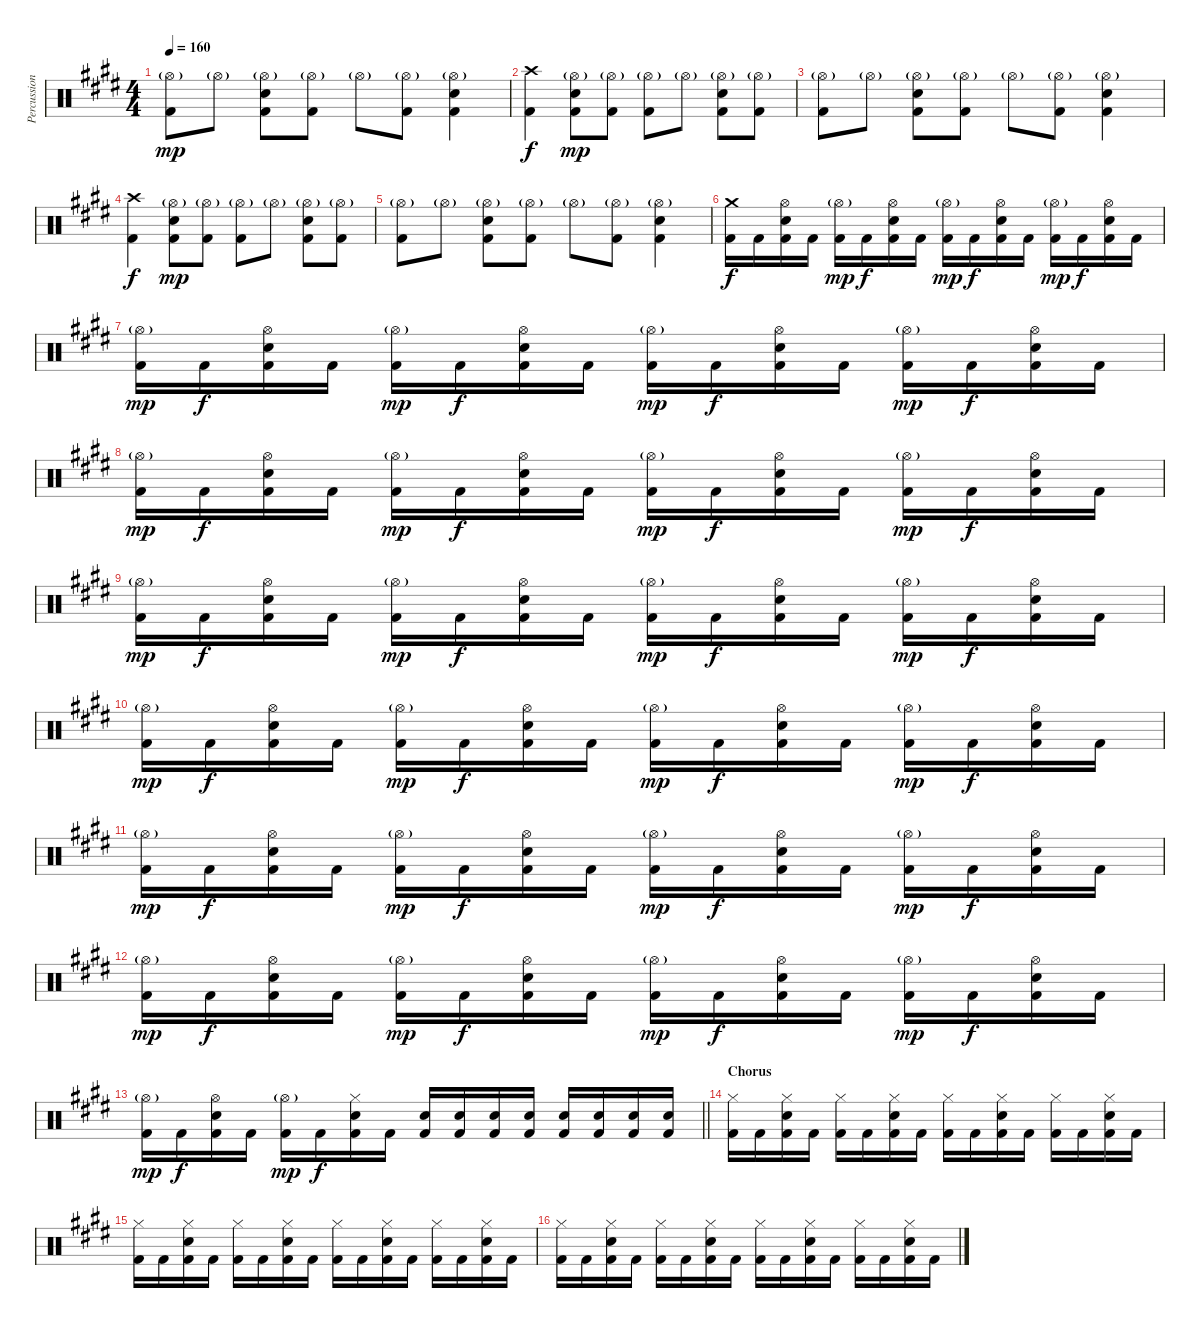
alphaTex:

\track ("Percussion (Thomen Stauch)" "Percussion") {instrument percussion}
\staff {score}
\articulation defaults
\ts (4 4)
\tempo 160
\clef neutral
\ks c#minor
("Hi-Hat (open)"{g} "Kick (hit) 2").8{dy mp} "Hi-Hat (open)"{g}.8 ("Hi-Hat (open)"{g} "Snare (hit) 2" "Kick (hit) 2").8 ("Hi-Hat (open)"{g} "Kick (hit) 2").8 "Hi-Hat (open)"{g}.8 ("Hi-Hat (open)"{g} "Kick (hit) 2").8 ("Hi-Hat (open)"{g} "Snare (hit) 2" "Kick (hit) 2").4 |
("Crash high (hit)" "Kick (hit) 2").4{dy f} ("Hi-Hat (open)"{g} "Snare (hit) 2" "Kick (hit) 2").8{dy mp} ("Hi-Hat (open)"{g} "Kick (hit) 2").8 ("Hi-Hat (open)"{g} "Kick (hit) 2").8 "Hi-Hat (open)"{g}.8 ("Hi-Hat (open)"{g} "Snare (hit) 2" "Kick (hit) 2").8 ("Hi-Hat (open)"{g} "Kick (hit) 2").8 |
("Hi-Hat (open)"{g} "Kick (hit) 2").8 "Hi-Hat (open)"{g}.8 ("Hi-Hat (open)"{g} "Snare (hit) 2" "Kick (hit) 2").8 ("Hi-Hat (open)"{g} "Kick (hit) 2").8 "Hi-Hat (open)"{g}.8 ("Hi-Hat (open)"{g} "Kick (hit) 2").8 ("Hi-Hat (open)"{g} "Snare (hit) 2" "Kick (hit) 2").4 |
("Crash high (hit)" "Kick (hit) 2").4{dy f} ("Hi-Hat (open)"{g} "Snare (hit) 2" "Kick (hit) 2").8{dy mp} ("Hi-Hat (open)"{g} "Kick (hit) 2").8 ("Hi-Hat (open)"{g} "Kick (hit) 2").8 "Hi-Hat (open)"{g}.8 ("Hi-Hat (open)"{g} "Snare (hit) 2" "Kick (hit) 2").8 ("Hi-Hat (open)"{g} "Kick (hit) 2").8 |
("Hi-Hat (open)"{g} "Kick (hit) 2").8 "Hi-Hat (open)"{g}.8 ("Hi-Hat (open)"{g} "Snare (hit) 2" "Kick (hit) 2").8 ("Hi-Hat (open)"{g} "Kick (hit) 2").8 "Hi-Hat (open)"{g}.8 ("Hi-Hat (open)"{g} "Kick (hit) 2").8 ("Hi-Hat (open)"{g} "Snare (hit) 2" "Kick (hit) 2").4 |
("Crash medium (hit)" "Kick (hit) 2").16{dy f} "Kick (hit) 2".16 ("Hi-Hat (open)" "Snare (hit) 2" "Kick (hit) 2").16 "Kick (hit) 2".16 ("Hi-Hat (open)"{g} "Kick (hit) 2").16{dy mp} "Kick (hit) 2".16{dy f} ("Hi-Hat (open)" "Snare (hit) 2" "Kick (hit) 2").16 "Kick (hit) 2".16 ("Hi-Hat (open)"{g} "Kick (hit) 2").16{dy mp} "Kick (hit) 2".16{dy f} ("Hi-Hat (open)" "Snare (hit) 2" "Kick (hit) 2").16 "Kick (hit) 2".16 ("Hi-Hat (open)"{g} "Kick (hit) 2").16{dy mp} "Kick (hit) 2".16{dy f} ("Hi-Hat (open)" "Snare (hit) 2" "Kick (hit) 2").16 "Kick (hit) 2".16 |
("Hi-Hat (open)"{g} "Kick (hit) 2").16{dy mp} "Kick (hit) 2".16{dy f} ("Hi-Hat (open)" "Snare (hit) 2" "Kick (hit) 2").16 "Kick (hit) 2".16 ("Hi-Hat (open)"{g} "Kick (hit) 2").16{dy mp} "Kick (hit) 2".16{dy f} ("Hi-Hat (open)" "Snare (hit) 2" "Kick (hit) 2").16 "Kick (hit) 2".16 ("Hi-Hat (open)"{g} "Kick (hit) 2").16{dy mp} "Kick (hit) 2".16{dy f} ("Hi-Hat (open)" "Snare (hit) 2" "Kick (hit) 2").16 "Kick (hit) 2".16 ("Hi-Hat (open)"{g} "Kick (hit) 2").16{dy mp} "Kick (hit) 2".16{dy f} ("Hi-Hat (open)" "Snare (hit) 2" "Kick (hit) 2").16 "Kick (hit) 2".16 |
("Hi-Hat (open)"{g} "Kick (hit) 2").16{dy mp} "Kick (hit) 2".16{dy f} ("Hi-Hat (open)" "Snare (hit) 2" "Kick (hit) 2").16 "Kick (hit) 2".16 ("Hi-Hat (open)"{g} "Kick (hit) 2").16{dy mp} "Kick (hit) 2".16{dy f} ("Hi-Hat (open)" "Snare (hit) 2" "Kick (hit) 2").16 "Kick (hit) 2".16 ("Hi-Hat (open)"{g} "Kick (hit) 2").16{dy mp} "Kick (hit) 2".16{dy f} ("Hi-Hat (open)" "Snare (hit) 2" "Kick (hit) 2").16 "Kick (hit) 2".16 ("Hi-Hat (open)"{g} "Kick (hit) 2").16{dy mp} "Kick (hit) 2".16{dy f} ("Hi-Hat (open)" "Snare (hit) 2" "Kick (hit) 2").16 "Kick (hit) 2".16 |
("Hi-Hat (open)"{g} "Kick (hit) 2").16{dy mp} "Kick (hit) 2".16{dy f} ("Hi-Hat (open)" "Snare (hit) 2" "Kick (hit) 2").16 "Kick (hit) 2".16 ("Hi-Hat (open)"{g} "Kick (hit) 2").16{dy mp} "Kick (hit) 2".16{dy f} ("Hi-Hat (open)" "Snare (hit) 2" "Kick (hit) 2").16 "Kick (hit) 2".16 ("Hi-Hat (open)"{g} "Kick (hit) 2").16{dy mp} "Kick (hit) 2".16{dy f} ("Hi-Hat (open)" "Snare (hit) 2" "Kick (hit) 2").16 "Kick (hit) 2".16 ("Hi-Hat (open)"{g} "Kick (hit) 2").16{dy mp} "Kick (hit) 2".16{dy f} ("Hi-Hat (open)" "Snare (hit) 2" "Kick (hit) 2").16 "Kick (hit) 2".16 |
("Hi-Hat (open)"{g} "Kick (hit) 2").16{dy mp} "Kick (hit) 2".16{dy f} ("Hi-Hat (open)" "Snare (hit) 2" "Kick (hit) 2").16 "Kick (hit) 2".16 ("Hi-Hat (open)"{g} "Kick (hit) 2").16{dy mp} "Kick (hit) 2".16{dy f} ("Hi-Hat (open)" "Snare (hit) 2" "Kick (hit) 2").16 "Kick (hit) 2".16 ("Hi-Hat (open)"{g} "Kick (hit) 2").16{dy mp} "Kick (hit) 2".16{dy f} ("Hi-Hat (open)" "Snare (hit) 2" "Kick (hit) 2").16 "Kick (hit) 2".16 ("Hi-Hat (open)"{g} "Kick (hit) 2").16{dy mp} "Kick (hit) 2".16{dy f} ("Hi-Hat (open)" "Snare (hit) 2" "Kick (hit) 2").16 "Kick (hit) 2".16 |
("Hi-Hat (open)"{g} "Kick (hit) 2").16{dy mp} "Kick (hit) 2".16{dy f} ("Hi-Hat (open)" "Snare (hit) 2" "Kick (hit) 2").16 "Kick (hit) 2".16 ("Hi-Hat (open)"{g} "Kick (hit) 2").16{dy mp} "Kick (hit) 2".16{dy f} ("Hi-Hat (open)" "Snare (hit) 2" "Kick (hit) 2").16 "Kick (hit) 2".16 ("Hi-Hat (open)"{g} "Kick (hit) 2").16{dy mp} "Kick (hit) 2".16{dy f} ("Hi-Hat (open)" "Snare (hit) 2" "Kick (hit) 2").16 "Kick (hit) 2".16 ("Hi-Hat (open)"{g} "Kick (hit) 2").16{dy mp} "Kick (hit) 2".16{dy f} ("Hi-Hat (open)" "Snare (hit) 2" "Kick (hit) 2").16 "Kick (hit) 2".16 |
("Hi-Hat (open)"{g} "Kick (hit) 2").16{dy mp} "Kick (hit) 2".16{dy f} ("Hi-Hat (open)" "Snare (hit) 2" "Kick (hit) 2").16 "Kick (hit) 2".16 ("Hi-Hat (open)"{g} "Kick (hit) 2").16{dy mp} "Kick (hit) 2".16{dy f} ("Hi-Hat (open)" "Snare (hit) 2" "Kick (hit) 2").16 "Kick (hit) 2".16 ("Hi-Hat (open)"{g} "Kick (hit) 2").16{dy mp} "Kick (hit) 2".16{dy f} ("Hi-Hat (open)" "Snare (hit) 2" "Kick (hit) 2").16 "Kick (hit) 2".16 ("Hi-Hat (open)"{g} "Kick (hit) 2").16{dy mp} "Kick (hit) 2".16{dy f} ("Hi-Hat (open)" "Snare (hit) 2" "Kick (hit) 2").16 "Kick (hit) 2".16 |
\barLineRight lightlight
("Hi-Hat (open)"{g} "Kick (hit) 2").16{dy mp} "Kick (hit) 2".16{dy f} ("Hi-Hat (open)" "Snare (hit) 2" "Kick (hit) 2").16 "Kick (hit) 2".16 ("Hi-Hat (open)"{g} "Kick (hit) 2").16{dy mp} "Kick (hit) 2".16{dy f} ("Hi-Hat (closed)" "Snare (hit) 2" "Kick (hit) 2").16 "Kick (hit) 2".16 ("Snare (hit) 2" "Kick (hit) 2").16 ("Snare (hit) 2" "Kick (hit) 2").16 ("Snare (hit) 2" "Kick (hit) 2").16 ("Snare (hit) 2" "Kick (hit) 2").16 ("Snare (hit) 2" "Kick (hit) 2").16 ("Snare (hit) 2" "Kick (hit) 2").16 ("Snare (hit) 2" "Kick (hit) 2").16 ("Snare (hit) 2" "Kick (hit) 2").16 |
\section ("" "Chorus")
("Hi-Hat (closed)" "Kick (hit) 2").16 "Kick (hit) 2".16 ("Hi-Hat (closed)" "Snare (hit) 2" "Kick (hit) 2").16 "Kick (hit) 2".16 ("Hi-Hat (closed)" "Kick (hit) 2").16 "Kick (hit) 2".16 ("Hi-Hat (closed)" "Snare (hit) 2" "Kick (hit) 2").16 "Kick (hit) 2".16 ("Hi-Hat (closed)" "Kick (hit) 2").16 "Kick (hit) 2".16 ("Hi-Hat (closed)" "Snare (hit) 2" "Kick (hit) 2").16 "Kick (hit) 2".16 ("Hi-Hat (closed)" "Kick (hit) 2").16 "Kick (hit) 2".16 ("Hi-Hat (closed)" "Snare (hit) 2" "Kick (hit) 2").16 "Kick (hit) 2".16 |
("Hi-Hat (closed)" "Kick (hit) 2").16 "Kick (hit) 2".16 ("Hi-Hat (closed)" "Snare (hit) 2" "Kick (hit) 2").16 "Kick (hit) 2".16 ("Hi-Hat (closed)" "Kick (hit) 2").16 "Kick (hit) 2".16 ("Hi-Hat (closed)" "Snare (hit) 2" "Kick (hit) 2").16 "Kick (hit) 2".16 ("Hi-Hat (closed)" "Kick (hit) 2").16 "Kick (hit) 2".16 ("Hi-Hat (closed)" "Snare (hit) 2" "Kick (hit) 2").16 "Kick (hit) 2".16 ("Hi-Hat (closed)" "Kick (hit) 2").16 "Kick (hit) 2".16 ("Hi-Hat (closed)" "Snare (hit) 2" "Kick (hit) 2").16 "Kick (hit) 2".16 |
("Hi-Hat (closed)" "Kick (hit) 2").16 "Kick (hit) 2".16 ("Hi-Hat (closed)" "Snare (hit) 2" "Kick (hit) 2").16 "Kick (hit) 2".16 ("Hi-Hat (closed)" "Kick (hit) 2").16 "Kick (hit) 2".16 ("Hi-Hat (closed)" "Snare (hit) 2" "Kick (hit) 2").16 "Kick (hit) 2".16 ("Hi-Hat (closed)" "Kick (hit) 2").16 "Kick (hit) 2".16 ("Hi-Hat (closed)" "Snare (hit) 2" "Kick (hit) 2").16 "Kick (hit) 2".16 ("Hi-Hat (closed)" "Kick (hit) 2").16 "Kick (hit) 2".16 ("Hi-Hat (closed)" "Snare (hit) 2" "Kick (hit) 2").16 "Kick (hit) 2".16
